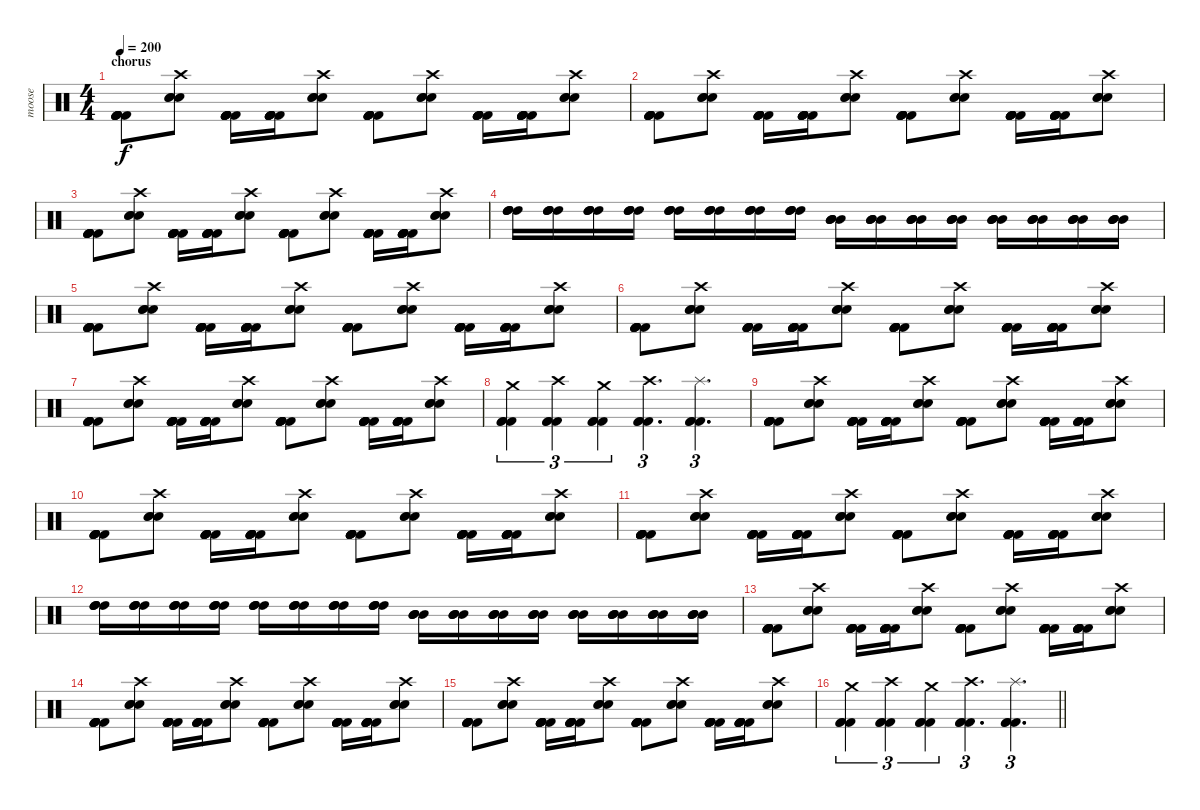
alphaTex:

\track ("moose" "moose") {instrument percussion}
\staff {score}
\articulation defaults
\ts (4 4)
\section ("" "chorus")
\tempo 200
\clef neutral
\ks c
("Kick (hit) 2" "Kick (hit) 2" "Kick (hit) 2" "Kick (hit) 2" "Kick (hit) 2" "Kick (hit) 2").8{dy f} ("Electric Snare (hit)" "Electric Snare (hit)" "Electric Snare (hit)" "Crash high (hit)").8 ("Kick (hit) 2" "Kick (hit) 2" "Kick (hit) 2" "Kick (hit) 2" "Kick (hit) 2" "Kick (hit) 2").16 ("Kick (hit) 2" "Kick (hit) 2" "Kick (hit) 2" "Kick (hit) 2" "Kick (hit) 2" "Kick (hit) 2").16 ("Electric Snare (hit)" "Electric Snare (hit)" "Electric Snare (hit)" "Crash high (hit)").8 ("Kick (hit) 2" "Kick (hit) 2" "Kick (hit) 2" "Kick (hit) 2" "Kick (hit) 2" "Kick (hit) 2").8 ("Electric Snare (hit)" "Electric Snare (hit)" "Electric Snare (hit)" "Crash high (hit)").8 ("Kick (hit) 2" "Kick (hit) 2" "Kick (hit) 2" "Kick (hit) 2" "Kick (hit) 2" "Kick (hit) 2").16 ("Kick (hit) 2" "Kick (hit) 2" "Kick (hit) 2" "Kick (hit) 2" "Kick (hit) 2" "Kick (hit) 2").16 ("Electric Snare (hit)" "Electric Snare (hit)" "Electric Snare (hit)" "Crash high (hit)").8 |
("Kick (hit) 2" "Kick (hit) 2" "Kick (hit) 2" "Kick (hit) 2" "Kick (hit) 2" "Kick (hit) 2").8 ("Electric Snare (hit)" "Electric Snare (hit)" "Electric Snare (hit)" "Crash high (hit)").8 ("Kick (hit) 2" "Kick (hit) 2" "Kick (hit) 2" "Kick (hit) 2" "Kick (hit) 2" "Kick (hit) 2").16 ("Kick (hit) 2" "Kick (hit) 2" "Kick (hit) 2" "Kick (hit) 2" "Kick (hit) 2" "Kick (hit) 2").16 ("Electric Snare (hit)" "Electric Snare (hit)" "Electric Snare (hit)" "Crash high (hit)").8 ("Kick (hit) 2" "Kick (hit) 2" "Kick (hit) 2" "Kick (hit) 2" "Kick (hit) 2" "Kick (hit) 2").8 ("Electric Snare (hit)" "Electric Snare (hit)" "Electric Snare (hit)" "Crash high (hit)").8 ("Kick (hit) 2" "Kick (hit) 2" "Kick (hit) 2" "Kick (hit) 2" "Kick (hit) 2" "Kick (hit) 2").16 ("Kick (hit) 2" "Kick (hit) 2" "Kick (hit) 2" "Kick (hit) 2" "Kick (hit) 2" "Kick (hit) 2").16 ("Electric Snare (hit)" "Electric Snare (hit)" "Electric Snare (hit)" "Crash high (hit)").8 |
("Kick (hit) 2" "Kick (hit) 2" "Kick (hit) 2" "Kick (hit) 2" "Kick (hit) 2" "Kick (hit) 2").8 ("Electric Snare (hit)" "Electric Snare (hit)" "Electric Snare (hit)" "Crash high (hit)").8 ("Kick (hit) 2" "Kick (hit) 2" "Kick (hit) 2" "Kick (hit) 2" "Kick (hit) 2" "Kick (hit) 2").16 ("Kick (hit) 2" "Kick (hit) 2" "Kick (hit) 2" "Kick (hit) 2" "Kick (hit) 2" "Kick (hit) 2").16 ("Electric Snare (hit)" "Electric Snare (hit)" "Electric Snare (hit)" "Crash high (hit)").8 ("Kick (hit) 2" "Kick (hit) 2" "Kick (hit) 2" "Kick (hit) 2" "Kick (hit) 2" "Kick (hit) 2").8 ("Electric Snare (hit)" "Electric Snare (hit)" "Electric Snare (hit)" "Crash high (hit)").8 ("Kick (hit) 2" "Kick (hit) 2" "Kick (hit) 2" "Kick (hit) 2" "Kick (hit) 2" "Kick (hit) 2").16 ("Kick (hit) 2" "Kick (hit) 2" "Kick (hit) 2" "Kick (hit) 2" "Kick (hit) 2" "Kick (hit) 2").16 ("Electric Snare (hit)" "Electric Snare (hit)" "Electric Snare (hit)" "Crash high (hit)").8 |
("High Tom (hit)" "High Tom (hit)" "High Tom (hit)" "High Tom (hit)").16 ("High Tom (hit)" "High Tom (hit)" "High Tom (hit)" "High Tom (hit)").16 ("High Tom (hit)" "High Tom (hit)" "High Tom (hit)" "High Tom (hit)").16 ("High Tom (hit)" "High Tom (hit)" "High Tom (hit)" "High Tom (hit)").16 ("High Tom (hit)" "High Tom (hit)" "High Tom (hit)" "High Tom (hit)").16 ("High Tom (hit)" "High Tom (hit)" "High Tom (hit)" "High Tom (hit)").16 ("High Tom (hit)" "High Tom (hit)" "High Tom (hit)" "High Tom (hit)").16 ("High Tom (hit)" "High Tom (hit)" "High Tom (hit)" "High Tom (hit)").16 ("Mid Tom (hit)" "Mid Tom (hit)" "Mid Tom (hit)" "Mid Tom (hit)").16 ("Mid Tom (hit)" "Mid Tom (hit)" "Mid Tom (hit)" "Mid Tom (hit)").16 ("Mid Tom (hit)" "Mid Tom (hit)" "Mid Tom (hit)" "Mid Tom (hit)").16 ("Mid Tom (hit)" "Mid Tom (hit)" "Mid Tom (hit)" "Mid Tom (hit)").16 ("Mid Tom (hit)" "Mid Tom (hit)" "Mid Tom (hit)" "Mid Tom (hit)").16 ("Mid Tom (hit)" "Mid Tom (hit)" "Mid Tom (hit)" "Mid Tom (hit)").16 ("Mid Tom (hit)" "Mid Tom (hit)" "Mid Tom (hit)" "Mid Tom (hit)").16 ("Mid Tom (hit)" "Mid Tom (hit)" "Mid Tom (hit)" "Mid Tom (hit)").16 |
("Kick (hit) 2" "Kick (hit) 2" "Kick (hit) 2" "Kick (hit) 2" "Kick (hit) 2" "Kick (hit) 2").8 ("Electric Snare (hit)" "Electric Snare (hit)" "Electric Snare (hit)" "Crash high (hit)").8 ("Kick (hit) 2" "Kick (hit) 2" "Kick (hit) 2" "Kick (hit) 2" "Kick (hit) 2" "Kick (hit) 2").16 ("Kick (hit) 2" "Kick (hit) 2" "Kick (hit) 2" "Kick (hit) 2" "Kick (hit) 2" "Kick (hit) 2").16 ("Electric Snare (hit)" "Electric Snare (hit)" "Electric Snare (hit)" "Crash high (hit)").8 ("Kick (hit) 2" "Kick (hit) 2" "Kick (hit) 2" "Kick (hit) 2" "Kick (hit) 2" "Kick (hit) 2").8 ("Electric Snare (hit)" "Electric Snare (hit)" "Electric Snare (hit)" "Crash high (hit)").8 ("Kick (hit) 2" "Kick (hit) 2" "Kick (hit) 2" "Kick (hit) 2" "Kick (hit) 2" "Kick (hit) 2").16 ("Kick (hit) 2" "Kick (hit) 2" "Kick (hit) 2" "Kick (hit) 2" "Kick (hit) 2" "Kick (hit) 2").16 ("Electric Snare (hit)" "Electric Snare (hit)" "Electric Snare (hit)" "Crash high (hit)").8 |
("Kick (hit) 2" "Kick (hit) 2" "Kick (hit) 2" "Kick (hit) 2" "Kick (hit) 2" "Kick (hit) 2").8 ("Electric Snare (hit)" "Electric Snare (hit)" "Electric Snare (hit)" "Crash high (hit)").8 ("Kick (hit) 2" "Kick (hit) 2" "Kick (hit) 2" "Kick (hit) 2" "Kick (hit) 2" "Kick (hit) 2").16 ("Kick (hit) 2" "Kick (hit) 2" "Kick (hit) 2" "Kick (hit) 2" "Kick (hit) 2" "Kick (hit) 2").16 ("Electric Snare (hit)" "Electric Snare (hit)" "Electric Snare (hit)" "Crash high (hit)").8 ("Kick (hit) 2" "Kick (hit) 2" "Kick (hit) 2" "Kick (hit) 2" "Kick (hit) 2" "Kick (hit) 2").8 ("Electric Snare (hit)" "Electric Snare (hit)" "Electric Snare (hit)" "Crash high (hit)").8 ("Kick (hit) 2" "Kick (hit) 2" "Kick (hit) 2" "Kick (hit) 2" "Kick (hit) 2" "Kick (hit) 2").16 ("Kick (hit) 2" "Kick (hit) 2" "Kick (hit) 2" "Kick (hit) 2" "Kick (hit) 2" "Kick (hit) 2").16 ("Electric Snare (hit)" "Electric Snare (hit)" "Electric Snare (hit)" "Crash high (hit)").8 |
("Kick (hit) 2" "Kick (hit) 2" "Kick (hit) 2" "Kick (hit) 2" "Kick (hit) 2" "Kick (hit) 2").8 ("Electric Snare (hit)" "Electric Snare (hit)" "Electric Snare (hit)" "Crash high (hit)").8 ("Kick (hit) 2" "Kick (hit) 2" "Kick (hit) 2" "Kick (hit) 2" "Kick (hit) 2" "Kick (hit) 2").16 ("Kick (hit) 2" "Kick (hit) 2" "Kick (hit) 2" "Kick (hit) 2" "Kick (hit) 2" "Kick (hit) 2").16 ("Electric Snare (hit)" "Electric Snare (hit)" "Electric Snare (hit)" "Crash high (hit)").8 ("Kick (hit) 2" "Kick (hit) 2" "Kick (hit) 2" "Kick (hit) 2" "Kick (hit) 2" "Kick (hit) 2").8 ("Electric Snare (hit)" "Electric Snare (hit)" "Electric Snare (hit)" "Crash high (hit)").8 ("Kick (hit) 2" "Kick (hit) 2" "Kick (hit) 2" "Kick (hit) 2" "Kick (hit) 2" "Kick (hit) 2").16 ("Kick (hit) 2" "Kick (hit) 2" "Kick (hit) 2" "Kick (hit) 2" "Kick (hit) 2" "Kick (hit) 2").16 ("Electric Snare (hit)" "Electric Snare (hit)" "Electric Snare (hit)" "Crash high (hit)").8 |
("Kick (hit) 2" "Kick (hit) 2" "Kick (hit) 2" "Crash medium (hit)").4{tu (3 2)} ("Kick (hit) 2" "Kick (hit) 2" "Kick (hit) 2" "Crash high (hit)").4{tu (3 2)} ("Kick (hit) 2" "Kick (hit) 2" "Kick (hit) 2" "Crash medium (hit)").4{tu (3 2)} ("Kick (hit) 2" "Kick (hit) 2" "Kick (hit) 2" "Crash high (hit)").4{d tu (3 2)} ("Kick (hit) 2" "Kick (hit) 2" "Kick (hit) 2" "Splash (hit)").4{d tu (3 2)} |
("Kick (hit) 2" "Kick (hit) 2" "Kick (hit) 2" "Kick (hit) 2" "Kick (hit) 2" "Kick (hit) 2").8 ("Electric Snare (hit)" "Electric Snare (hit)" "Electric Snare (hit)" "Crash high (hit)").8 ("Kick (hit) 2" "Kick (hit) 2" "Kick (hit) 2" "Kick (hit) 2" "Kick (hit) 2" "Kick (hit) 2").16 ("Kick (hit) 2" "Kick (hit) 2" "Kick (hit) 2" "Kick (hit) 2" "Kick (hit) 2" "Kick (hit) 2").16 ("Electric Snare (hit)" "Electric Snare (hit)" "Electric Snare (hit)" "Crash high (hit)").8 ("Kick (hit) 2" "Kick (hit) 2" "Kick (hit) 2" "Kick (hit) 2" "Kick (hit) 2" "Kick (hit) 2").8 ("Electric Snare (hit)" "Electric Snare (hit)" "Electric Snare (hit)" "Crash high (hit)").8 ("Kick (hit) 2" "Kick (hit) 2" "Kick (hit) 2" "Kick (hit) 2" "Kick (hit) 2" "Kick (hit) 2").16 ("Kick (hit) 2" "Kick (hit) 2" "Kick (hit) 2" "Kick (hit) 2" "Kick (hit) 2" "Kick (hit) 2").16 ("Electric Snare (hit)" "Electric Snare (hit)" "Electric Snare (hit)" "Crash high (hit)").8 |
("Kick (hit) 2" "Kick (hit) 2" "Kick (hit) 2" "Kick (hit) 2" "Kick (hit) 2" "Kick (hit) 2").8 ("Electric Snare (hit)" "Electric Snare (hit)" "Electric Snare (hit)" "Crash high (hit)").8 ("Kick (hit) 2" "Kick (hit) 2" "Kick (hit) 2" "Kick (hit) 2" "Kick (hit) 2" "Kick (hit) 2").16 ("Kick (hit) 2" "Kick (hit) 2" "Kick (hit) 2" "Kick (hit) 2" "Kick (hit) 2" "Kick (hit) 2").16 ("Electric Snare (hit)" "Electric Snare (hit)" "Electric Snare (hit)" "Crash high (hit)").8 ("Kick (hit) 2" "Kick (hit) 2" "Kick (hit) 2" "Kick (hit) 2" "Kick (hit) 2" "Kick (hit) 2").8 ("Electric Snare (hit)" "Electric Snare (hit)" "Electric Snare (hit)" "Crash high (hit)").8 ("Kick (hit) 2" "Kick (hit) 2" "Kick (hit) 2" "Kick (hit) 2" "Kick (hit) 2" "Kick (hit) 2").16 ("Kick (hit) 2" "Kick (hit) 2" "Kick (hit) 2" "Kick (hit) 2" "Kick (hit) 2" "Kick (hit) 2").16 ("Electric Snare (hit)" "Electric Snare (hit)" "Electric Snare (hit)" "Crash high (hit)").8 |
("Kick (hit) 2" "Kick (hit) 2" "Kick (hit) 2" "Kick (hit) 2" "Kick (hit) 2" "Kick (hit) 2").8 ("Electric Snare (hit)" "Electric Snare (hit)" "Electric Snare (hit)" "Crash high (hit)").8 ("Kick (hit) 2" "Kick (hit) 2" "Kick (hit) 2" "Kick (hit) 2" "Kick (hit) 2" "Kick (hit) 2").16 ("Kick (hit) 2" "Kick (hit) 2" "Kick (hit) 2" "Kick (hit) 2" "Kick (hit) 2" "Kick (hit) 2").16 ("Electric Snare (hit)" "Electric Snare (hit)" "Electric Snare (hit)" "Crash high (hit)").8 ("Kick (hit) 2" "Kick (hit) 2" "Kick (hit) 2" "Kick (hit) 2" "Kick (hit) 2" "Kick (hit) 2").8 ("Electric Snare (hit)" "Electric Snare (hit)" "Electric Snare (hit)" "Crash high (hit)").8 ("Kick (hit) 2" "Kick (hit) 2" "Kick (hit) 2" "Kick (hit) 2" "Kick (hit) 2" "Kick (hit) 2").16 ("Kick (hit) 2" "Kick (hit) 2" "Kick (hit) 2" "Kick (hit) 2" "Kick (hit) 2" "Kick (hit) 2").16 ("Electric Snare (hit)" "Electric Snare (hit)" "Electric Snare (hit)" "Crash high (hit)").8 |
("High Tom (hit)" "High Tom (hit)" "High Tom (hit)" "High Tom (hit)").16 ("High Tom (hit)" "High Tom (hit)" "High Tom (hit)" "High Tom (hit)").16 ("High Tom (hit)" "High Tom (hit)" "High Tom (hit)" "High Tom (hit)").16 ("High Tom (hit)" "High Tom (hit)" "High Tom (hit)" "High Tom (hit)").16 ("High Tom (hit)" "High Tom (hit)" "High Tom (hit)" "High Tom (hit)").16 ("High Tom (hit)" "High Tom (hit)" "High Tom (hit)" "High Tom (hit)").16 ("High Tom (hit)" "High Tom (hit)" "High Tom (hit)" "High Tom (hit)").16 ("High Tom (hit)" "High Tom (hit)" "High Tom (hit)" "High Tom (hit)").16 ("Mid Tom (hit)" "Mid Tom (hit)" "Mid Tom (hit)" "Mid Tom (hit)").16 ("Mid Tom (hit)" "Mid Tom (hit)" "Mid Tom (hit)" "Mid Tom (hit)").16 ("Mid Tom (hit)" "Mid Tom (hit)" "Mid Tom (hit)" "Mid Tom (hit)").16 ("Mid Tom (hit)" "Mid Tom (hit)" "Mid Tom (hit)" "Mid Tom (hit)").16 ("Mid Tom (hit)" "Mid Tom (hit)" "Mid Tom (hit)" "Mid Tom (hit)").16 ("Mid Tom (hit)" "Mid Tom (hit)" "Mid Tom (hit)" "Mid Tom (hit)").16 ("Mid Tom (hit)" "Mid Tom (hit)" "Mid Tom (hit)" "Mid Tom (hit)").16 ("Mid Tom (hit)" "Mid Tom (hit)" "Mid Tom (hit)" "Mid Tom (hit)").16 |
("Kick (hit) 2" "Kick (hit) 2" "Kick (hit) 2" "Kick (hit) 2" "Kick (hit) 2" "Kick (hit) 2").8 ("Electric Snare (hit)" "Electric Snare (hit)" "Electric Snare (hit)" "Crash high (hit)").8 ("Kick (hit) 2" "Kick (hit) 2" "Kick (hit) 2" "Kick (hit) 2" "Kick (hit) 2" "Kick (hit) 2").16 ("Kick (hit) 2" "Kick (hit) 2" "Kick (hit) 2" "Kick (hit) 2" "Kick (hit) 2" "Kick (hit) 2").16 ("Electric Snare (hit)" "Electric Snare (hit)" "Electric Snare (hit)" "Crash high (hit)").8 ("Kick (hit) 2" "Kick (hit) 2" "Kick (hit) 2" "Kick (hit) 2" "Kick (hit) 2" "Kick (hit) 2").8 ("Electric Snare (hit)" "Electric Snare (hit)" "Electric Snare (hit)" "Crash high (hit)").8 ("Kick (hit) 2" "Kick (hit) 2" "Kick (hit) 2" "Kick (hit) 2" "Kick (hit) 2" "Kick (hit) 2").16 ("Kick (hit) 2" "Kick (hit) 2" "Kick (hit) 2" "Kick (hit) 2" "Kick (hit) 2" "Kick (hit) 2").16 ("Electric Snare (hit)" "Electric Snare (hit)" "Electric Snare (hit)" "Crash high (hit)").8 |
("Kick (hit) 2" "Kick (hit) 2" "Kick (hit) 2" "Kick (hit) 2" "Kick (hit) 2" "Kick (hit) 2").8 ("Electric Snare (hit)" "Electric Snare (hit)" "Electric Snare (hit)" "Crash high (hit)").8 ("Kick (hit) 2" "Kick (hit) 2" "Kick (hit) 2" "Kick (hit) 2" "Kick (hit) 2" "Kick (hit) 2").16 ("Kick (hit) 2" "Kick (hit) 2" "Kick (hit) 2" "Kick (hit) 2" "Kick (hit) 2" "Kick (hit) 2").16 ("Electric Snare (hit)" "Electric Snare (hit)" "Electric Snare (hit)" "Crash high (hit)").8 ("Kick (hit) 2" "Kick (hit) 2" "Kick (hit) 2" "Kick (hit) 2" "Kick (hit) 2" "Kick (hit) 2").8 ("Electric Snare (hit)" "Electric Snare (hit)" "Electric Snare (hit)" "Crash high (hit)").8 ("Kick (hit) 2" "Kick (hit) 2" "Kick (hit) 2" "Kick (hit) 2" "Kick (hit) 2" "Kick (hit) 2").16 ("Kick (hit) 2" "Kick (hit) 2" "Kick (hit) 2" "Kick (hit) 2" "Kick (hit) 2" "Kick (hit) 2").16 ("Electric Snare (hit)" "Electric Snare (hit)" "Electric Snare (hit)" "Crash high (hit)").8 |
("Kick (hit) 2" "Kick (hit) 2" "Kick (hit) 2" "Kick (hit) 2" "Kick (hit) 2" "Kick (hit) 2").8 ("Electric Snare (hit)" "Electric Snare (hit)" "Electric Snare (hit)" "Crash high (hit)").8 ("Kick (hit) 2" "Kick (hit) 2" "Kick (hit) 2" "Kick (hit) 2" "Kick (hit) 2" "Kick (hit) 2").16 ("Kick (hit) 2" "Kick (hit) 2" "Kick (hit) 2" "Kick (hit) 2" "Kick (hit) 2" "Kick (hit) 2").16 ("Electric Snare (hit)" "Electric Snare (hit)" "Electric Snare (hit)" "Crash high (hit)").8 ("Kick (hit) 2" "Kick (hit) 2" "Kick (hit) 2" "Kick (hit) 2" "Kick (hit) 2" "Kick (hit) 2").8 ("Electric Snare (hit)" "Electric Snare (hit)" "Electric Snare (hit)" "Crash high (hit)").8 ("Kick (hit) 2" "Kick (hit) 2" "Kick (hit) 2" "Kick (hit) 2" "Kick (hit) 2" "Kick (hit) 2").16 ("Kick (hit) 2" "Kick (hit) 2" "Kick (hit) 2" "Kick (hit) 2" "Kick (hit) 2" "Kick (hit) 2").16 ("Electric Snare (hit)" "Electric Snare (hit)" "Electric Snare (hit)" "Crash high (hit)").8 |
\barLineRight lightlight
("Kick (hit) 2" "Kick (hit) 2" "Kick (hit) 2" "Crash medium (hit)").4{tu (3 2)} ("Kick (hit) 2" "Kick (hit) 2" "Kick (hit) 2" "Crash high (hit)").4{tu (3 2)} ("Kick (hit) 2" "Kick (hit) 2" "Kick (hit) 2" "Crash medium (hit)").4{tu (3 2)} ("Kick (hit) 2" "Kick (hit) 2" "Kick (hit) 2" "Crash high (hit)").4{d tu (3 2)} ("Kick (hit) 2" "Kick (hit) 2" "Kick (hit) 2" "Splash (hit)").4{d tu (3 2)}
